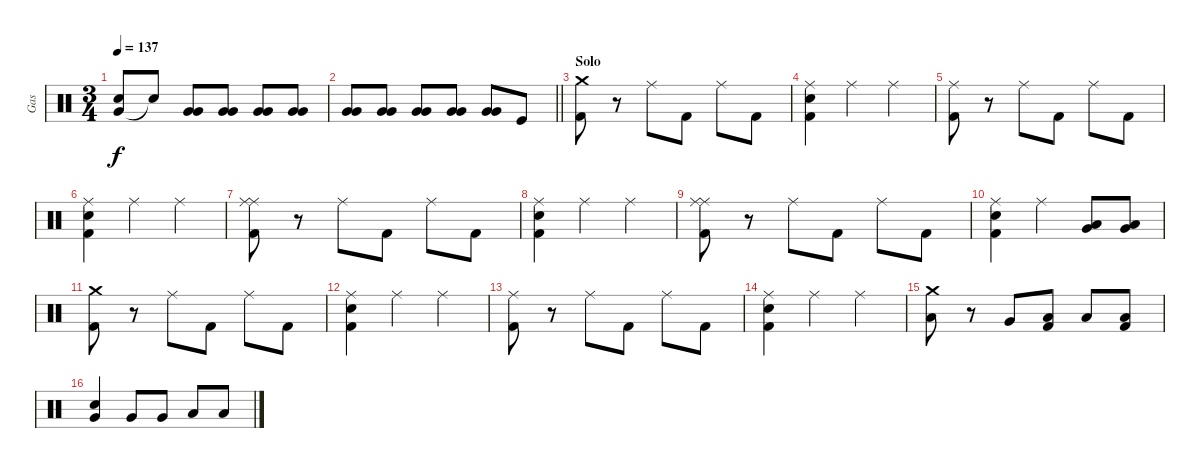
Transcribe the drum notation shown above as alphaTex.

\track ("Gas" "Gas") {instrument percussion}
\staff {score}
\articulation defaults
\ts (3 4)
\tempo 137
\clef neutral
\ks c
("Very Low Tom (hit)" "Snare (hit) 2").8{dy f} "Snare (hit)"{t}.8 ("Very Low Tom (hit)" "Very Low Tom (hit)").8 ("Very Low Tom (hit)" "Very Low Tom (hit)").8 ("Very Low Tom (hit)" "Very Low Tom (hit)").8 ("Very Low Tom (hit)" "Very Low Tom (hit)").8 |
\barLineRight lightlight
("Very Low Tom (hit)" "Very Low Tom (hit)").8 ("Very Low Tom (hit)" "Very Low Tom (hit)").8 ("Very Low Tom (hit)" "Very Low Tom (hit)").8 ("Very Low Tom (hit)" "Very Low Tom (hit)").8 ("Very Low Tom (hit)" "Very Low Tom (hit)").8 "Kick (hit)".8 |
\section ("" "Solo")
("Crash medium (hit)" "Kick (hit) 2").8 r.8 "Ride (middle)".8 "Kick (hit) 2".8 "Ride (middle)".8 "Kick (hit) 2".8 |
("Ride (middle)" "Snare (hit) 2" "Kick (hit) 2").4 "Ride (middle)".4 "Ride (middle)".4 |
("Ride (middle)" "Kick (hit) 2").8 r.8 "Ride (middle)".8 "Kick (hit) 2".8 "Ride (middle)".8 "Kick (hit) 2".8 |
("Ride (middle)" "Snare (hit) 2" "Kick (hit) 2").4 "Ride (middle)".4 "Ride (middle)".4 |
("Ride (middle)" "Ride (middle)" "Kick (hit) 2").8 r.8 "Ride (middle)".8 "Kick (hit) 2".8 "Ride (middle)".8 "Kick (hit) 2".8 |
("Ride (middle)" "Snare (hit) 2" "Kick (hit) 2").4 "Ride (middle)".4 "Ride (middle)".4 |
("Ride (middle)" "Ride (middle)" "Kick (hit) 2").8 r.8 "Ride (middle)".8 "Kick (hit) 2".8 "Ride (middle)".8 "Kick (hit) 2".8 |
("Ride (middle)" "Snare (hit) 2" "Kick (hit) 2").4 "Ride (middle)".4 ("Low Tom (hit)" "Very Low Tom (hit)").8{bd 60} ("Low Tom (hit)" "Very Low Tom (hit)").8{bd 60} |
("Crash medium (hit)" "Kick (hit) 2").8 r.8 "Ride (middle)".8 "Kick (hit) 2".8 "Ride (middle)".8 "Kick (hit) 2".8 |
("Ride (middle)" "Snare (hit) 2" "Kick (hit) 2").4 "Ride (middle)".4 "Ride (middle)".4 |
("Ride (middle)" "Kick (hit) 2").8 r.8 "Ride (middle)".8 "Kick (hit) 2".8 "Ride (middle)".8 "Kick (hit) 2".8 |
("Ride (middle)" "Snare (hit) 2" "Kick (hit) 2").4 "Ride (middle)".4 "Ride (middle)".4 |
("Crash medium (hit)" "Low Tom (hit)").8 r.8 "Very Low Tom (hit)".8 ("Low Tom (hit)" "Kick (hit) 2").8 "Low Tom (hit)".8 ("Low Tom (hit)" "Kick (hit) 2").8 |
("Very Low Tom (hit)" "Snare (hit) 2").4 "Very Low Tom (hit)".8 "Very Low Tom (hit)".8 "Low Tom (hit)".8 "Low Tom (hit)".8
